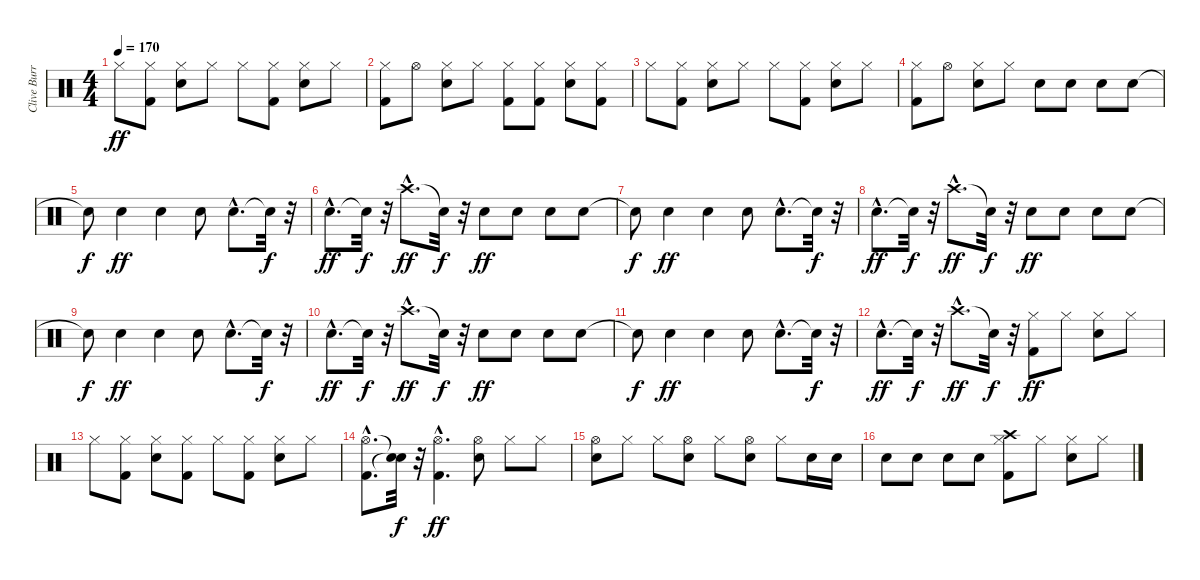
\track ("Clive Burr" "Clive Burr") {instrument percussion}
\staff {score}
\articulation defaults
\ts (4 4)
\tempo 170
\clef neutral
\ks c "Hi-Hat (closed)".8{dy ff}
("Kick (hit) 2" "Hi-Hat (closed)").8 ("Snare (hit) 2" "Hi-Hat (closed)").8 "Hi-Hat (closed)".8 "Hi-Hat (closed)".8 ("Kick (hit) 2" "Hi-Hat (closed)").8 ("Snare (hit) 2" "Hi-Hat (closed)").8 "Hi-Hat (closed)".8 |
("Kick (hit) 2" "Hi-Hat (closed)").8 "Hi-Hat (open)".8 ("Snare (hit) 2" "Hi-Hat (closed)").8 "Hi-Hat (closed)".8 ("Kick (hit) 2" "Hi-Hat (closed)").8 ("Kick (hit) 2" "Hi-Hat (closed)").8 ("Snare (hit) 2" "Hi-Hat (closed)").8 ("Kick (hit) 2" "Hi-Hat (closed)").8 |
"Hi-Hat (closed)".8 ("Kick (hit) 2" "Hi-Hat (closed)").8 ("Snare (hit) 2" "Hi-Hat (closed)").8 "Hi-Hat (closed)".8 "Hi-Hat (closed)".8 ("Kick (hit) 2" "Hi-Hat (closed)").8 ("Snare (hit) 2" "Hi-Hat (closed)").8 "Hi-Hat (closed)".8 |
("Kick (hit) 2" "Hi-Hat (closed)").8 "Hi-Hat (open)".8 ("Snare (hit) 2" "Hi-Hat (closed)").8 "Hi-Hat (closed)".8 "Snare (hit) 2".8 "Snare (hit) 2".8 "Snare (hit) 2".8 "Snare (hit) 2".8 |
"Snare (hit)"{t}.8{dy f} "Snare (hit) 2".4{dy ff} "Snare (hit) 2".4 "Snare (hit) 2".8 "Snare (hit) 2"{hac}.8{d} "Snare (hit)"{t}.32{dy f} r.32 |
"Snare (hit) 2"{hac}.8{d dy ff} "Snare (hit)"{t}.32{dy f} r.32 "Crash high (hit)"{hac}.8{d dy ff} "Snare (hit)"{t}.32{dy f} r.32 "Snare (hit) 2".8{dy ff} "Snare (hit) 2".8 "Snare (hit) 2".8 "Snare (hit) 2".8 |
"Snare (hit)"{t}.8{dy f} "Snare (hit) 2".4{dy ff} "Snare (hit) 2".4 "Snare (hit) 2".8 "Snare (hit) 2"{hac}.8{d} "Snare (hit)"{t}.32{dy f} r.32 |
"Snare (hit) 2"{hac}.8{d dy ff} "Snare (hit)"{t}.32{dy f} r.32 "Crash high (hit)"{hac}.8{d dy ff} "Snare (hit)"{t}.32{dy f} r.32 "Snare (hit) 2".8{dy ff} "Snare (hit) 2".8 "Snare (hit) 2".8 "Snare (hit) 2".8 |
"Snare (hit)"{t}.8{dy f} "Snare (hit) 2".4{dy ff} "Snare (hit) 2".4 "Snare (hit) 2".8 "Snare (hit) 2"{hac}.8{d} "Snare (hit)"{t}.32{dy f} r.32 |
"Snare (hit) 2"{hac}.8{d dy ff} "Snare (hit)"{t}.32{dy f} r.32 "Crash high (hit)"{hac}.8{d dy ff} "Snare (hit)"{t}.32{dy f} r.32 "Snare (hit) 2".8{dy ff} "Snare (hit) 2".8 "Snare (hit) 2".8 "Snare (hit) 2".8 |
"Snare (hit)"{t}.8{dy f} "Snare (hit) 2".4{dy ff} "Snare (hit) 2".4 "Snare (hit) 2".8 "Snare (hit) 2"{hac}.8{d} "Snare (hit)"{t}.32{dy f} r.32 |
"Snare (hit) 2"{hac}.8{d dy ff} "Snare (hit)"{t}.32{dy f} r.32 "Crash high (hit)"{hac}.8{d dy ff} "Snare (hit)"{t}.32{dy f} r.32 ("Kick (hit) 2" "Hi-Hat (closed)").8{dy ff} "Hi-Hat (closed)".8 ("Snare (hit) 2" "Hi-Hat (closed)").8 "Hi-Hat (closed)".8 |
"Hi-Hat (closed)".8 ("Kick (hit) 2" "Hi-Hat (closed)").8 ("Snare (hit) 2" "Hi-Hat (closed)").8 ("Kick (hit) 2" "Hi-Hat (closed)").8 "Hi-Hat (closed)".8 ("Kick (hit) 2" "Hi-Hat (closed)").8 ("Snare (hit) 2" "Hi-Hat (closed)").8 "Hi-Hat (closed)".8 |
("Kick (hit) 2"{hac} "Hi-Hat (open)"{hac}).8{d} ("Snare (hit)"{t} "Snare (hit)"{t}).32{dy f} r.32 ("Kick (hit) 2"{hac} "Hi-Hat (open)"{hac}).4{d dy ff} ("Snare (hit) 2" "Hi-Hat (open)").8 "Hi-Hat (closed)".8 "Hi-Hat (closed)".8 |
("Snare (hit) 2" "Hi-Hat (open)").8 "Hi-Hat (closed)".8 "Hi-Hat (closed)".8 ("Snare (hit) 2" "Hi-Hat (open)").8 "Hi-Hat (closed)".8 ("Snare (hit) 2" "Hi-Hat (open)").8 "Hi-Hat (closed)".8 "Snare (hit) 2".16 "Snare (hit) 2".16 |
"Snare (hit) 2".8 "Snare (hit) 2".8 "Snare (hit) 2".8 "Snare (hit) 2".8 ("Kick (hit) 2" "Hi-Hat (closed)" "Crash high (hit)").8 "Hi-Hat (closed)".8 ("Snare (hit) 2" "Hi-Hat (closed)").8 "Hi-Hat (closed)".8
